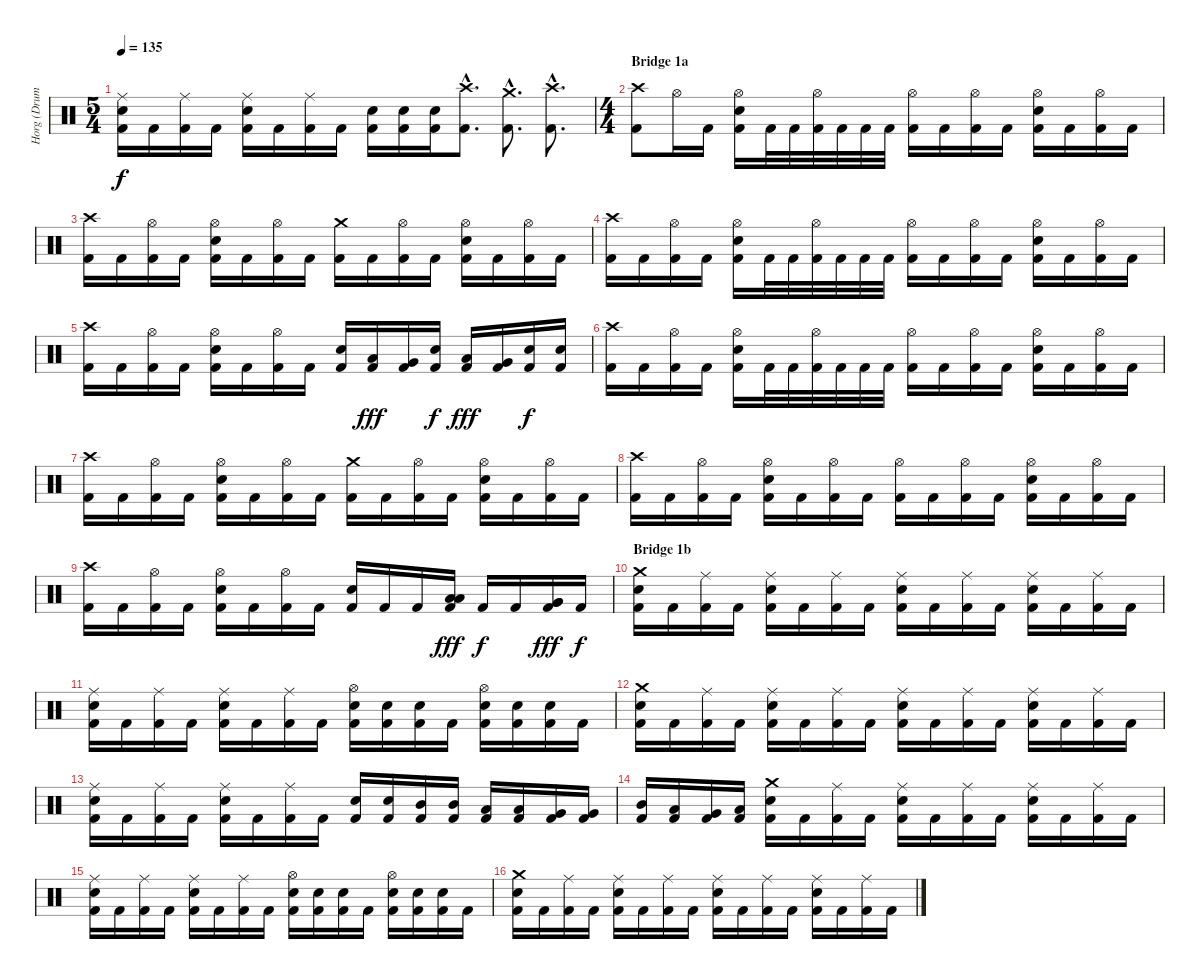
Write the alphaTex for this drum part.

\track ("Horg (Drums)" "Horg (Drum") {instrument percussion}
\staff {score}
\articulation defaults
\ts (5 4)
\tempo 135
\clef neutral
\ks c
("Ride (middle)" "Electric Snare (hit)" "Kick (hit) 2").16{dy f} "Kick (hit) 2".16 ("Ride (middle)" "Kick (hit) 2").16 "Kick (hit) 2".16 ("Ride (middle)" "Electric Snare (hit)" "Kick (hit) 2").16 "Kick (hit) 2".16 ("Ride (middle)" "Kick (hit) 2").16 "Kick (hit) 2".16 ("Electric Snare (hit)" "Kick (hit) 2").16 ("Electric Snare (hit)" "Kick (hit) 2").16 ("Electric Snare (hit)" "Kick (hit) 2").16 ("Crash high (hit)"{hac} "Kick (hit) 2"{hac}).8{d} ("Crash medium (hit)"{hac} "Kick (hit) 2"{hac}).8{d} ("Crash high (hit)"{hac} "Kick (hit) 2"{hac}).8{d} |
\ts (4 4)
\section ("" "Bridge 1a")
("Crash high (hit)" "Kick (hit) 2").8 "Hi-Hat (open)".16 "Kick (hit) 2".16 ("Hi-Hat (open)" "Electric Snare (hit)" "Kick (hit) 2").16 "Kick (hit) 2".32 "Kick (hit) 2".32 ("Hi-Hat (open)" "Kick (hit) 2").32 "Kick (hit) 2".32 "Kick (hit) 2".32 "Kick (hit) 2".32 ("Hi-Hat (open)" "Kick (hit) 2").16 "Kick (hit) 2".16 ("Hi-Hat (open)" "Kick (hit) 2").16 "Kick (hit) 2".16 ("Hi-Hat (open)" "Electric Snare (hit)" "Kick (hit) 2").16 "Kick (hit) 2".16 ("Hi-Hat (open)" "Kick (hit) 2").16 "Kick (hit) 2".16 |
("Crash high (hit)" "Kick (hit) 2").16 "Kick (hit) 2".16 ("Hi-Hat (open)" "Kick (hit) 2").16 "Kick (hit) 2".16 ("Hi-Hat (open)" "Electric Snare (hit)" "Kick (hit) 2").16 "Kick (hit) 2".16 ("Hi-Hat (open)" "Kick (hit) 2").16 "Kick (hit) 2".16 ("Crash medium (hit)" "Kick (hit) 2").16 "Kick (hit) 2".16 ("Hi-Hat (open)" "Kick (hit) 2").16 "Kick (hit) 2".16 ("Hi-Hat (open)" "Electric Snare (hit)" "Kick (hit) 2").16 "Kick (hit) 2".16 ("Hi-Hat (open)" "Kick (hit) 2").16 "Kick (hit) 2".16 |
("Crash high (hit)" "Kick (hit) 2").16 "Kick (hit) 2".16 ("Hi-Hat (open)" "Kick (hit) 2").16 "Kick (hit) 2".16 ("Hi-Hat (open)" "Electric Snare (hit)" "Kick (hit) 2").16 "Kick (hit) 2".32 "Kick (hit) 2".32 ("Hi-Hat (open)" "Kick (hit) 2").32 "Kick (hit) 2".32 "Kick (hit) 2".32 "Kick (hit) 2".32 ("Hi-Hat (open)" "Kick (hit) 2").16 "Kick (hit) 2".16 ("Hi-Hat (open)" "Kick (hit) 2").16 "Kick (hit) 2".16 ("Hi-Hat (open)" "Electric Snare (hit)" "Kick (hit) 2").16 "Kick (hit) 2".16 ("Hi-Hat (open)" "Kick (hit) 2").16 "Kick (hit) 2".16 |
("Crash high (hit)" "Kick (hit) 2").16 "Kick (hit) 2".16 ("Hi-Hat (open)" "Kick (hit) 2").16 "Kick (hit) 2".16 ("Hi-Hat (open)" "Electric Snare (hit)" "Kick (hit) 2").16 "Kick (hit) 2".16 ("Hi-Hat (open)" "Kick (hit) 2").16 "Kick (hit) 2".16 ("Electric Snare (hit)" "Kick (hit) 2").16 ("Low Tom (hit)" "Kick (hit) 2").16{dy fff} ("Very Low Tom (hit)" "Kick (hit) 2").16 ("Electric Snare (hit)" "Kick (hit) 2").16{dy f} ("Low Tom (hit)" "Kick (hit) 2").16{dy fff} ("Very Low Tom (hit)" "Kick (hit) 2").16 ("Electric Snare (hit)" "Kick (hit) 2").16{dy f} ("Electric Snare (hit)" "Kick (hit) 2").16 |
("Crash high (hit)" "Kick (hit) 2").16 "Kick (hit) 2".16 ("Hi-Hat (open)" "Kick (hit) 2").16 "Kick (hit) 2".16 ("Hi-Hat (open)" "Electric Snare (hit)" "Kick (hit) 2").16 "Kick (hit) 2".32 "Kick (hit) 2".32 ("Hi-Hat (open)" "Kick (hit) 2").32 "Kick (hit) 2".32 "Kick (hit) 2".32 "Kick (hit) 2".32 ("Hi-Hat (open)" "Kick (hit) 2").16 "Kick (hit) 2".16 ("Hi-Hat (open)" "Kick (hit) 2").16 "Kick (hit) 2".16 ("Hi-Hat (open)" "Electric Snare (hit)" "Kick (hit) 2").16 "Kick (hit) 2".16 ("Hi-Hat (open)" "Kick (hit) 2").16 "Kick (hit) 2".16 |
("Crash high (hit)" "Kick (hit) 2").16 "Kick (hit) 2".16 ("Hi-Hat (open)" "Kick (hit) 2").16 "Kick (hit) 2".16 ("Hi-Hat (open)" "Electric Snare (hit)" "Kick (hit) 2").16 "Kick (hit) 2".16 ("Hi-Hat (open)" "Kick (hit) 2").16 "Kick (hit) 2".16 ("Crash medium (hit)" "Kick (hit) 2").16 "Kick (hit) 2".16 ("Hi-Hat (open)" "Kick (hit) 2").16 "Kick (hit) 2".16 ("Hi-Hat (open)" "Electric Snare (hit)" "Kick (hit) 2").16 "Kick (hit) 2".16 ("Hi-Hat (open)" "Kick (hit) 2").16 "Kick (hit) 2".16 |
("Crash high (hit)" "Kick (hit) 2").16 "Kick (hit) 2".16 ("Hi-Hat (open)" "Kick (hit) 2").16 "Kick (hit) 2".16 ("Hi-Hat (open)" "Electric Snare (hit)" "Kick (hit) 2").16 "Kick (hit) 2".16 ("Hi-Hat (open)" "Kick (hit) 2").16 "Kick (hit) 2".16 ("Hi-Hat (open)" "Kick (hit) 2").16 "Kick (hit) 2".16 ("Hi-Hat (open)" "Kick (hit) 2").16 "Kick (hit) 2".16 ("Hi-Hat (open)" "Electric Snare (hit)" "Kick (hit) 2").16 "Kick (hit) 2".16 ("Hi-Hat (open)" "Kick (hit) 2").16 "Kick (hit) 2".16 |
("Crash high (hit)" "Kick (hit) 2").16 "Kick (hit) 2".16 ("Hi-Hat (open)" "Kick (hit) 2").16 "Kick (hit) 2".16 ("Hi-Hat (open)" "Electric Snare (hit)" "Kick (hit) 2").16 "Kick (hit) 2".16 ("Hi-Hat (open)" "Kick (hit) 2").16 "Kick (hit) 2".16 ("Electric Snare (hit)" "Kick (hit) 2").16 "Kick (hit) 2".16 "Kick (hit) 2".16 ("Low Tom (hit)" "Low Tom (hit)" "Kick (hit) 2").16{dy fff} "Kick (hit) 2".16{dy f} "Kick (hit) 2".16 ("Very Low Tom (hit)" "Very Low Tom (hit)" "Kick (hit) 2").16{dy fff} "Kick (hit) 2".16{dy f} |
\section ("" "Bridge 1b")
("Crash medium (hit)" "Electric Snare (hit)" "Kick (hit) 2").16 "Kick (hit) 2".16 ("Ride (middle)" "Kick (hit) 2").16 "Kick (hit) 2".16 ("Ride (middle)" "Electric Snare (hit)" "Kick (hit) 2").16 "Kick (hit) 2".16 ("Ride (middle)" "Kick (hit) 2").16 "Kick (hit) 2".16 ("Ride (middle)" "Electric Snare (hit)" "Kick (hit) 2").16 "Kick (hit) 2".16 ("Ride (middle)" "Kick (hit) 2").16 "Kick (hit) 2".16 ("Ride (middle)" "Electric Snare (hit)" "Kick (hit) 2").16 "Kick (hit) 2".16 ("Ride (middle)" "Kick (hit) 2").16 "Kick (hit) 2".16 |
("Ride (middle)" "Electric Snare (hit)" "Kick (hit) 2").16 "Kick (hit) 2".16 ("Ride (middle)" "Kick (hit) 2").16 "Kick (hit) 2".16 ("Ride (middle)" "Electric Snare (hit)" "Kick (hit) 2").16 "Kick (hit) 2".16 ("Ride (middle)" "Kick (hit) 2").16 "Kick (hit) 2".16 ("Hi-Hat (open)" "Electric Snare (hit)" "Kick (hit) 2").16 ("Electric Snare (hit)" "Kick (hit) 2").16 ("Electric Snare (hit)" "Kick (hit) 2").16 "Kick (hit) 2".16 ("Hi-Hat (open)" "Electric Snare (hit)" "Kick (hit) 2").16 ("Electric Snare (hit)" "Kick (hit) 2").16 ("Electric Snare (hit)" "Kick (hit) 2").16 "Kick (hit) 2".16 |
("Crash medium (hit)" "Electric Snare (hit)" "Kick (hit) 2").16 "Kick (hit) 2".16 ("Ride (middle)" "Kick (hit) 2").16 "Kick (hit) 2".16 ("Ride (middle)" "Electric Snare (hit)" "Kick (hit) 2").16 "Kick (hit) 2".16 ("Ride (middle)" "Kick (hit) 2").16 "Kick (hit) 2".16 ("Ride (middle)" "Electric Snare (hit)" "Kick (hit) 2").16 "Kick (hit) 2".16 ("Ride (middle)" "Kick (hit) 2").16 "Kick (hit) 2".16 ("Ride (middle)" "Electric Snare (hit)" "Kick (hit) 2").16 "Kick (hit) 2".16 ("Ride (middle)" "Kick (hit) 2").16 "Kick (hit) 2".16 |
("Ride (middle)" "Electric Snare (hit)" "Kick (hit) 2").16 "Kick (hit) 2".16 ("Ride (middle)" "Kick (hit) 2").16 "Kick (hit) 2".16 ("Ride (middle)" "Electric Snare (hit)" "Kick (hit) 2").16 "Kick (hit) 2".16 ("Ride (middle)" "Kick (hit) 2").16 "Kick (hit) 2".16 ("Electric Snare (hit)" "Kick (hit) 2").16 ("Electric Snare (hit)" "Kick (hit) 2").16 ("Mid Tom (hit)" "Kick (hit) 2").16 ("Mid Tom (hit)" "Kick (hit) 2").16 ("Low Tom (hit)" "Kick (hit) 2").16 ("Low Tom (hit)" "Kick (hit) 2").16 ("Very Low Tom (hit)" "Kick (hit) 2").16 ("Very Low Tom (hit)" "Kick (hit) 2").16 |
("Mid Tom (hit)" "Kick (hit) 2").16 ("Low Tom (hit)" "Kick (hit) 2").16 ("Very Low Tom (hit)" "Kick (hit) 2").16 ("Low Floor Tom (hit)" "Kick (hit) 2").16 ("Crash medium (hit)" "Electric Snare (hit)" "Kick (hit) 2").16 "Kick (hit) 2".16 ("Ride (middle)" "Kick (hit) 2").16 "Kick (hit) 2".16 ("Ride (middle)" "Electric Snare (hit)" "Kick (hit) 2").16 "Kick (hit) 2".16 ("Ride (middle)" "Kick (hit) 2").16 "Kick (hit) 2".16 ("Ride (middle)" "Electric Snare (hit)" "Kick (hit) 2").16 "Kick (hit) 2".16 ("Ride (middle)" "Kick (hit) 2").16 "Kick (hit) 2".16 |
("Ride (middle)" "Electric Snare (hit)" "Kick (hit) 2").16 "Kick (hit) 2".16 ("Ride (middle)" "Kick (hit) 2").16 "Kick (hit) 2".16 ("Ride (middle)" "Electric Snare (hit)" "Kick (hit) 2").16 "Kick (hit) 2".16 ("Ride (middle)" "Kick (hit) 2").16 "Kick (hit) 2".16 ("Hi-Hat (open)" "Electric Snare (hit)" "Kick (hit) 2").16 ("Electric Snare (hit)" "Kick (hit) 2").16 ("Electric Snare (hit)" "Kick (hit) 2").16 "Kick (hit) 2".16 ("Hi-Hat (open)" "Electric Snare (hit)" "Kick (hit) 2").16 ("Electric Snare (hit)" "Kick (hit) 2").16 ("Electric Snare (hit)" "Kick (hit) 2").16 "Kick (hit) 2".16 |
("Crash medium (hit)" "Electric Snare (hit)" "Kick (hit) 2").16 "Kick (hit) 2".16 ("Ride (middle)" "Kick (hit) 2").16 "Kick (hit) 2".16 ("Ride (middle)" "Electric Snare (hit)" "Kick (hit) 2").16 "Kick (hit) 2".16 ("Ride (middle)" "Kick (hit) 2").16 "Kick (hit) 2".16 ("Ride (middle)" "Electric Snare (hit)" "Kick (hit) 2").16 "Kick (hit) 2".16 ("Ride (middle)" "Kick (hit) 2").16 "Kick (hit) 2".16 ("Ride (middle)" "Electric Snare (hit)" "Kick (hit) 2").16 "Kick (hit) 2".16 ("Ride (middle)" "Kick (hit) 2").16 "Kick (hit) 2".16
